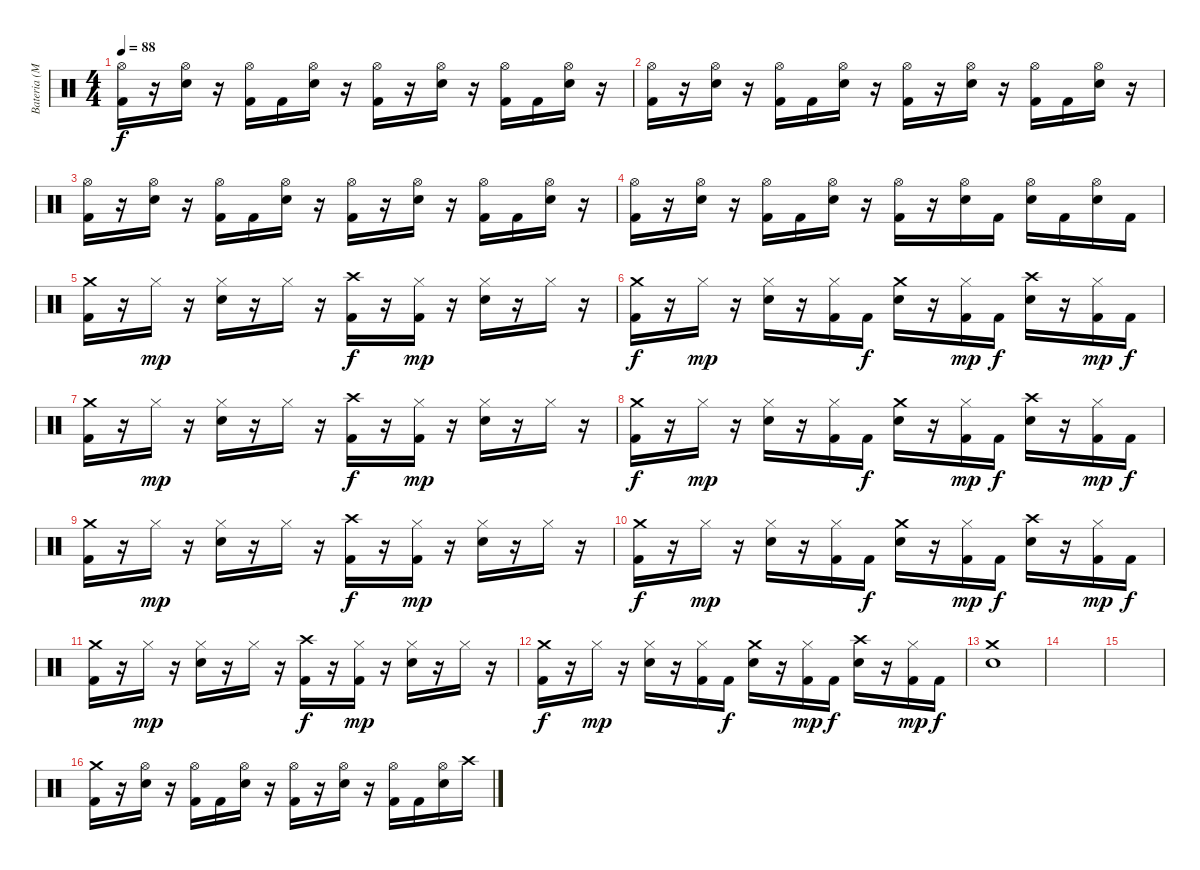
\track ("Bateria (Matt)" "Bateria (M") {instrument percussion}
\staff {score}
\articulation defaults
\ts (4 4)
\tempo 88
\clef neutral
\ks c
("Hi-Hat (open)" "Kick (hit) 2").16{dy f} r.16 ("Hi-Hat (open)" "Electric Snare (hit)").16 r.16 ("Hi-Hat (open)" "Kick (hit) 2").16 "Kick (hit) 2".16 ("Hi-Hat (open)" "Electric Snare (hit)").16 r.16 ("Hi-Hat (open)" "Kick (hit) 2").16 r.16 ("Hi-Hat (open)" "Electric Snare (hit)").16 r.16 ("Hi-Hat (open)" "Kick (hit) 2").16 "Kick (hit) 2".16 ("Hi-Hat (open)" "Electric Snare (hit)").16 r.16 |
("Hi-Hat (open)" "Kick (hit) 2").16 r.16 ("Hi-Hat (open)" "Electric Snare (hit)").16 r.16 ("Hi-Hat (open)" "Kick (hit) 2").16 "Kick (hit) 2".16 ("Hi-Hat (open)" "Electric Snare (hit)").16 r.16 ("Hi-Hat (open)" "Kick (hit) 2").16 r.16 ("Hi-Hat (open)" "Electric Snare (hit)").16 r.16 ("Hi-Hat (open)" "Kick (hit) 2").16 "Kick (hit) 2".16 ("Hi-Hat (open)" "Electric Snare (hit)").16 r.16 |
("Hi-Hat (open)" "Kick (hit) 2").16 r.16 ("Hi-Hat (open)" "Electric Snare (hit)").16 r.16 ("Hi-Hat (open)" "Kick (hit) 2").16 "Kick (hit) 2".16 ("Hi-Hat (open)" "Electric Snare (hit)").16 r.16 ("Hi-Hat (open)" "Kick (hit) 2").16 r.16 ("Hi-Hat (open)" "Electric Snare (hit)").16 r.16 ("Hi-Hat (open)" "Kick (hit) 2").16 "Kick (hit) 2".16 ("Hi-Hat (open)" "Electric Snare (hit)").16 r.16 |
("Hi-Hat (open)" "Kick (hit) 2").16 r.16 ("Hi-Hat (open)" "Electric Snare (hit)").16 r.16 ("Hi-Hat (open)" "Kick (hit) 2").16 "Kick (hit) 2".16 ("Hi-Hat (open)" "Electric Snare (hit)").16 r.16 ("Hi-Hat (open)" "Kick (hit) 2").16 r.16 ("Hi-Hat (open)" "Electric Snare (hit)").16 "Kick (hit) 2".16 ("Hi-Hat (open)" "Electric Snare (hit)").16 "Kick (hit) 2".16 ("Hi-Hat (open)" "Electric Snare (hit)").16 "Kick (hit) 2".16 |
("Crash medium (hit)" "Kick (hit) 2").16 r.16 "Hi-Hat (closed)".16{dy mp} r.16 ("Hi-Hat (closed)" "Electric Snare (hit)").16 r.16 "Hi-Hat (closed)".16 r.16 ("Crash high (hit)" "Kick (hit) 2").16{dy f} r.16 ("Hi-Hat (closed)" "Kick (hit) 2").16{dy mp} r.16 ("Hi-Hat (closed)" "Electric Snare (hit)").16 r.16 "Hi-Hat (closed)".16 r.16 |
("Crash medium (hit)" "Kick (hit) 2").16{dy f} r.16 "Hi-Hat (closed)".16{dy mp} r.16 ("Hi-Hat (closed)" "Electric Snare (hit)").16 r.16 ("Hi-Hat (closed)" "Kick (hit) 2").16 "Kick (hit) 2".16{dy f} ("Crash medium (hit)" "Electric Snare (hit)").16 r.16 ("Hi-Hat (closed)" "Kick (hit) 2").16{dy mp} "Kick (hit) 2".16{dy f} ("Crash high (hit)" "Electric Snare (hit)").16 r.16 ("Hi-Hat (closed)" "Kick (hit) 2").16{dy mp} "Kick (hit) 2".16{dy f} |
("Crash medium (hit)" "Kick (hit) 2").16 r.16 "Hi-Hat (closed)".16{dy mp} r.16 ("Hi-Hat (closed)" "Electric Snare (hit)").16 r.16 "Hi-Hat (closed)".16 r.16 ("Crash high (hit)" "Kick (hit) 2").16{dy f} r.16 ("Hi-Hat (closed)" "Kick (hit) 2").16{dy mp} r.16 ("Hi-Hat (closed)" "Electric Snare (hit)").16 r.16 "Hi-Hat (closed)".16 r.16 |
("Crash medium (hit)" "Kick (hit) 2").16{dy f} r.16 "Hi-Hat (closed)".16{dy mp} r.16 ("Hi-Hat (closed)" "Electric Snare (hit)").16 r.16 ("Hi-Hat (closed)" "Kick (hit) 2").16 "Kick (hit) 2".16{dy f} ("Crash medium (hit)" "Electric Snare (hit)").16 r.16 ("Hi-Hat (closed)" "Kick (hit) 2").16{dy mp} "Kick (hit) 2".16{dy f} ("Crash high (hit)" "Electric Snare (hit)").16 r.16 ("Hi-Hat (closed)" "Kick (hit) 2").16{dy mp} "Kick (hit) 2".16{dy f} |
("Crash medium (hit)" "Kick (hit) 2").16 r.16 "Hi-Hat (closed)".16{dy mp} r.16 ("Hi-Hat (closed)" "Electric Snare (hit)").16 r.16 "Hi-Hat (closed)".16 r.16 ("Crash high (hit)" "Kick (hit) 2").16{dy f} r.16 ("Hi-Hat (closed)" "Kick (hit) 2").16{dy mp} r.16 ("Hi-Hat (closed)" "Electric Snare (hit)").16 r.16 "Hi-Hat (closed)".16 r.16 |
("Crash medium (hit)" "Kick (hit) 2").16{dy f} r.16 "Hi-Hat (closed)".16{dy mp} r.16 ("Hi-Hat (closed)" "Electric Snare (hit)").16 r.16 ("Hi-Hat (closed)" "Kick (hit) 2").16 "Kick (hit) 2".16{dy f} ("Crash medium (hit)" "Electric Snare (hit)").16 r.16 ("Hi-Hat (closed)" "Kick (hit) 2").16{dy mp} "Kick (hit) 2".16{dy f} ("Crash high (hit)" "Electric Snare (hit)").16 r.16 ("Hi-Hat (closed)" "Kick (hit) 2").16{dy mp} "Kick (hit) 2".16{dy f} |
("Crash medium (hit)" "Kick (hit) 2").16 r.16 "Hi-Hat (closed)".16{dy mp} r.16 ("Hi-Hat (closed)" "Electric Snare (hit)").16 r.16 "Hi-Hat (closed)".16 r.16 ("Crash high (hit)" "Kick (hit) 2").16{dy f} r.16 ("Hi-Hat (closed)" "Kick (hit) 2").16{dy mp} r.16 ("Hi-Hat (closed)" "Electric Snare (hit)").16 r.16 "Hi-Hat (closed)".16 r.16 |
("Crash medium (hit)" "Kick (hit) 2").16{dy f} r.16 "Hi-Hat (closed)".16{dy mp} r.16 ("Hi-Hat (closed)" "Electric Snare (hit)").16 r.16 ("Hi-Hat (closed)" "Kick (hit) 2").16 "Kick (hit) 2".16{dy f} ("Crash medium (hit)" "Electric Snare (hit)").16 r.16 ("Hi-Hat (closed)" "Kick (hit) 2").16{dy mp} "Kick (hit) 2".16{dy f} ("Crash high (hit)" "Electric Snare (hit)").16 r.16 ("Hi-Hat (closed)" "Kick (hit) 2").16{dy mp} "Kick (hit) 2".16{dy f} |
("Crash medium (hit)" "Electric Snare (hit)").1 |
|
|
("Crash medium (hit)" "Kick (hit) 2").16 r.16 ("Hi-Hat (open)" "Electric Snare (hit)").16 r.16 ("Hi-Hat (open)" "Kick (hit) 2").16 "Kick (hit) 2".16 ("Hi-Hat (open)" "Electric Snare (hit)").16 r.16 ("Hi-Hat (open)" "Kick (hit) 2").16 r.16 ("Hi-Hat (open)" "Electric Snare (hit)").16 r.16 ("Hi-Hat (open)" "Kick (hit) 2").16 "Kick (hit) 2".16 ("Hi-Hat (open)" "Electric Snare (hit)").16 "Crash high (hit)".16
